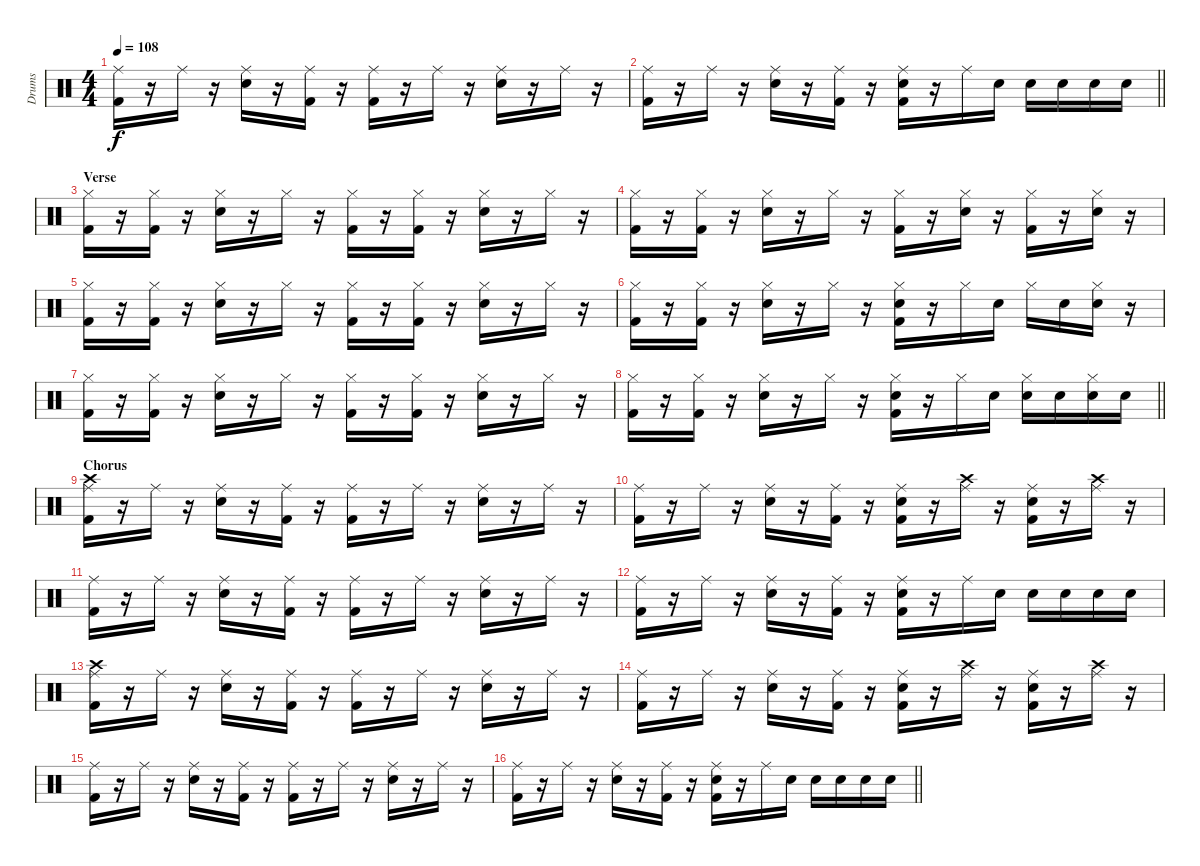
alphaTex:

\track ("Drums" "Drums") {instrument percussion}
\staff {score}
\articulation defaults
\ts (4 4)
\tempo 108
\clef neutral
\ks c
("Ride (middle)" "Kick (hit) 2").16{dy f} r.16 "Ride (middle)".16 r.16 ("Snare (hit) 2" "Ride (middle)").16 r.16 ("Ride (middle)" "Kick (hit) 2").16 r.16 ("Ride (middle)" "Kick (hit) 2").16 r.16 "Ride (middle)".16 r.16 ("Snare (hit) 2" "Ride (middle)").16 r.16 "Ride (middle)".16 r.16 |
\barLineRight lightlight
("Ride (middle)" "Kick (hit) 2").16 r.16 "Ride (middle)".16 r.16 ("Snare (hit) 2" "Ride (middle)").16 r.16 ("Ride (middle)" "Kick (hit) 2").16 r.16 ("Snare (hit) 2" "Ride (middle)" "Kick (hit) 2").16 r.16 "Ride (middle)".16 "Snare (hit) 2".16 "Snare (hit) 2".16 "Snare (hit) 2".16 "Snare (hit) 2".16 "Snare (hit) 2".16 |
\section ("" "Verse")
("Hi-Hat (closed)" "Kick (hit) 2").16 r.16 ("Hi-Hat (closed)" "Kick (hit) 2").16 r.16 ("Snare (hit) 2" "Hi-Hat (closed)").16 r.16 "Hi-Hat (closed)".16 r.16 ("Hi-Hat (closed)" "Kick (hit) 2").16 r.16 ("Hi-Hat (closed)" "Kick (hit) 2").16 r.16 ("Snare (hit) 2" "Hi-Hat (closed)").16 r.16 "Hi-Hat (closed)".16 r.16 |
("Hi-Hat (closed)" "Kick (hit) 2").16 r.16 ("Hi-Hat (closed)" "Kick (hit) 2").16 r.16 ("Snare (hit) 2" "Hi-Hat (closed)").16 r.16 "Hi-Hat (closed)".16 r.16 ("Hi-Hat (closed)" "Kick (hit) 2").16 r.16 ("Snare (hit) 2" "Hi-Hat (closed)").16 r.16 ("Hi-Hat (closed)" "Kick (hit) 2").16 r.16 ("Snare (hit) 2" "Hi-Hat (closed)").16 r.16 |
("Hi-Hat (closed)" "Kick (hit) 2").16 r.16 ("Hi-Hat (closed)" "Kick (hit) 2").16 r.16 ("Snare (hit) 2" "Hi-Hat (closed)").16 r.16 "Hi-Hat (closed)".16 r.16 ("Hi-Hat (closed)" "Kick (hit) 2").16 r.16 ("Hi-Hat (closed)" "Kick (hit) 2").16 r.16 ("Snare (hit) 2" "Hi-Hat (closed)").16 r.16 "Hi-Hat (closed)".16 r.16 |
("Hi-Hat (closed)" "Kick (hit) 2").16 r.16 ("Hi-Hat (closed)" "Kick (hit) 2").16 r.16 ("Snare (hit) 2" "Hi-Hat (closed)").16 r.16 "Hi-Hat (closed)".16 r.16 ("Snare (hit) 2" "Hi-Hat (closed)" "Kick (hit) 2").16 r.16 "Hi-Hat (closed)".16 "Snare (hit) 2".16 "Hi-Hat (closed)".16 "Snare (hit) 2".16 ("Snare (hit) 2" "Hi-Hat (closed)").16 r.16 |
("Hi-Hat (closed)" "Kick (hit) 2").16 r.16 ("Hi-Hat (closed)" "Kick (hit) 2").16 r.16 ("Snare (hit) 2" "Hi-Hat (closed)").16 r.16 "Hi-Hat (closed)".16 r.16 ("Hi-Hat (closed)" "Kick (hit) 2").16 r.16 ("Hi-Hat (closed)" "Kick (hit) 2").16 r.16 ("Snare (hit) 2" "Hi-Hat (closed)").16 r.16 "Hi-Hat (closed)".16 r.16 |
\barLineRight lightlight
("Hi-Hat (closed)" "Kick (hit) 2").16 r.16 ("Hi-Hat (closed)" "Kick (hit) 2").16 r.16 ("Snare (hit) 2" "Hi-Hat (closed)").16 r.16 "Hi-Hat (closed)".16 r.16 ("Snare (hit) 2" "Hi-Hat (closed)" "Kick (hit) 2").16 r.16 "Hi-Hat (closed)".16 "Snare (hit) 2".16 ("Snare (hit) 2" "Hi-Hat (closed)").16 "Snare (hit) 2".16 ("Snare (hit) 2" "Hi-Hat (closed)").16 "Snare (hit) 2".16 |
\section ("" "Chorus")
("Crash high (hit)" "Ride (middle)" "Kick (hit) 2").16 r.16 "Ride (middle)".16 r.16 ("Snare (hit) 2" "Ride (middle)").16 r.16 ("Ride (middle)" "Kick (hit) 2").16 r.16 ("Ride (middle)" "Kick (hit) 2").16 r.16 "Ride (middle)".16 r.16 ("Snare (hit) 2" "Ride (middle)").16 r.16 "Ride (middle)".16 r.16 |
("Ride (middle)" "Kick (hit) 2").16 r.16 "Ride (middle)".16 r.16 ("Snare (hit) 2" "Ride (middle)").16 r.16 ("Ride (middle)" "Kick (hit) 2").16 r.16 ("Snare (hit) 2" "Ride (middle)" "Kick (hit) 2").16 r.16 ("Crash high (hit)" "Ride (middle)").16 r.16 ("Snare (hit) 2" "Ride (middle)" "Kick (hit) 2").16 r.16 ("Crash high (hit)" "Ride (middle)").16 r.16 |
("Ride (middle)" "Kick (hit) 2").16 r.16 "Ride (middle)".16 r.16 ("Snare (hit) 2" "Ride (middle)").16 r.16 ("Ride (middle)" "Kick (hit) 2").16 r.16 ("Ride (middle)" "Kick (hit) 2").16 r.16 "Ride (middle)".16 r.16 ("Snare (hit) 2" "Ride (middle)").16 r.16 "Ride (middle)".16 r.16 |
("Ride (middle)" "Kick (hit) 2").16 r.16 "Ride (middle)".16 r.16 ("Snare (hit) 2" "Ride (middle)").16 r.16 ("Ride (middle)" "Kick (hit) 2").16 r.16 ("Snare (hit) 2" "Ride (middle)" "Kick (hit) 2").16 r.16 "Ride (middle)".16 "Snare (hit) 2".16 "Snare (hit) 2".16 "Snare (hit) 2".16 "Snare (hit) 2".16 "Snare (hit) 2".16 |
("Crash high (hit)" "Ride (middle)" "Kick (hit) 2").16 r.16 "Ride (middle)".16 r.16 ("Snare (hit) 2" "Ride (middle)").16 r.16 ("Ride (middle)" "Kick (hit) 2").16 r.16 ("Ride (middle)" "Kick (hit) 2").16 r.16 "Ride (middle)".16 r.16 ("Snare (hit) 2" "Ride (middle)").16 r.16 "Ride (middle)".16 r.16 |
("Ride (middle)" "Kick (hit) 2").16 r.16 "Ride (middle)".16 r.16 ("Snare (hit) 2" "Ride (middle)").16 r.16 ("Ride (middle)" "Kick (hit) 2").16 r.16 ("Snare (hit) 2" "Ride (middle)" "Kick (hit) 2").16 r.16 ("Crash high (hit)" "Ride (middle)").16 r.16 ("Snare (hit) 2" "Ride (middle)" "Kick (hit) 2").16 r.16 ("Crash high (hit)" "Ride (middle)").16 r.16 |
("Ride (middle)" "Kick (hit) 2").16 r.16 "Ride (middle)".16 r.16 ("Snare (hit) 2" "Ride (middle)").16 r.16 ("Ride (middle)" "Kick (hit) 2").16 r.16 ("Ride (middle)" "Kick (hit) 2").16 r.16 "Ride (middle)".16 r.16 ("Snare (hit) 2" "Ride (middle)").16 r.16 "Ride (middle)".16 r.16 |
\barLineRight lightlight
("Ride (middle)" "Kick (hit) 2").16 r.16 "Ride (middle)".16 r.16 ("Snare (hit) 2" "Ride (middle)").16 r.16 ("Ride (middle)" "Kick (hit) 2").16 r.16 ("Snare (hit) 2" "Ride (middle)" "Kick (hit) 2").16 r.16 "Ride (middle)".16 "Snare (hit) 2".16 "Snare (hit) 2".16 "Snare (hit) 2".16 "Snare (hit) 2".16 "Snare (hit) 2".16
